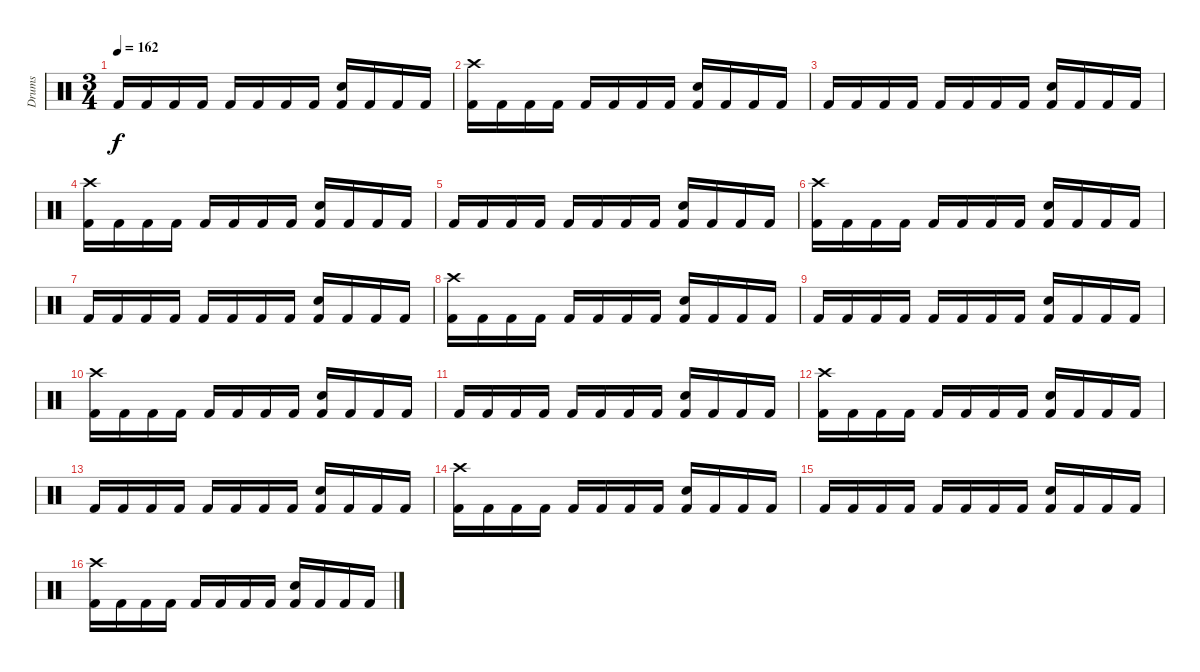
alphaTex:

\track ("Drums" "Drums") {instrument percussion}
\staff {score}
\articulation defaults
\ts (3 4)
\tempo 162
\clef neutral
\ks c "Kick (hit) 2".16{dy f} "Kick (hit) 2".16 "Kick (hit) 2".16 "Kick (hit) 2".16 "Kick (hit) 2".16 "Kick (hit) 2".16 "Kick (hit) 2".16 "Kick (hit) 2".16
("Snare (hit) 2" "Kick (hit) 2").16 "Kick (hit) 2".16 "Kick (hit) 2".16 "Kick (hit) 2".16 |
("Crash high (hit)" "Kick (hit) 2").16 "Kick (hit) 2".16 "Kick (hit) 2".16 "Kick (hit) 2".16 "Kick (hit) 2".16 "Kick (hit) 2".16 "Kick (hit) 2".16 "Kick (hit) 2".16 ("Snare (hit) 2" "Kick (hit) 2").16 "Kick (hit) 2".16 "Kick (hit) 2".16 "Kick (hit) 2".16 |
"Kick (hit) 2".16 "Kick (hit) 2".16 "Kick (hit) 2".16 "Kick (hit) 2".16 "Kick (hit) 2".16 "Kick (hit) 2".16 "Kick (hit) 2".16 "Kick (hit) 2".16 ("Snare (hit) 2" "Kick (hit) 2").16 "Kick (hit) 2".16 "Kick (hit) 2".16 "Kick (hit) 2".16 |
("Crash high (hit)" "Kick (hit) 2").16 "Kick (hit) 2".16 "Kick (hit) 2".16 "Kick (hit) 2".16 "Kick (hit) 2".16 "Kick (hit) 2".16 "Kick (hit) 2".16 "Kick (hit) 2".16 ("Snare (hit) 2" "Kick (hit) 2").16 "Kick (hit) 2".16 "Kick (hit) 2".16 "Kick (hit) 2".16 |
"Kick (hit) 2".16 "Kick (hit) 2".16 "Kick (hit) 2".16 "Kick (hit) 2".16 "Kick (hit) 2".16 "Kick (hit) 2".16 "Kick (hit) 2".16 "Kick (hit) 2".16 ("Snare (hit) 2" "Kick (hit) 2").16 "Kick (hit) 2".16 "Kick (hit) 2".16 "Kick (hit) 2".16 |
("Crash high (hit)" "Kick (hit) 2").16 "Kick (hit) 2".16 "Kick (hit) 2".16 "Kick (hit) 2".16 "Kick (hit) 2".16 "Kick (hit) 2".16 "Kick (hit) 2".16 "Kick (hit) 2".16 ("Snare (hit) 2" "Kick (hit) 2").16 "Kick (hit) 2".16 "Kick (hit) 2".16 "Kick (hit) 2".16 |
"Kick (hit) 2".16 "Kick (hit) 2".16 "Kick (hit) 2".16 "Kick (hit) 2".16 "Kick (hit) 2".16 "Kick (hit) 2".16 "Kick (hit) 2".16 "Kick (hit) 2".16 ("Snare (hit) 2" "Kick (hit) 2").16 "Kick (hit) 2".16 "Kick (hit) 2".16 "Kick (hit) 2".16 |
("Crash high (hit)" "Kick (hit) 2").16 "Kick (hit) 2".16 "Kick (hit) 2".16 "Kick (hit) 2".16 "Kick (hit) 2".16 "Kick (hit) 2".16 "Kick (hit) 2".16 "Kick (hit) 2".16 ("Snare (hit) 2" "Kick (hit) 2").16 "Kick (hit) 2".16 "Kick (hit) 2".16 "Kick (hit) 2".16 |
"Kick (hit) 2".16 "Kick (hit) 2".16 "Kick (hit) 2".16 "Kick (hit) 2".16 "Kick (hit) 2".16 "Kick (hit) 2".16 "Kick (hit) 2".16 "Kick (hit) 2".16 ("Snare (hit) 2" "Kick (hit) 2").16 "Kick (hit) 2".16 "Kick (hit) 2".16 "Kick (hit) 2".16 |
("Crash high (hit)" "Kick (hit) 2").16 "Kick (hit) 2".16 "Kick (hit) 2".16 "Kick (hit) 2".16 "Kick (hit) 2".16 "Kick (hit) 2".16 "Kick (hit) 2".16 "Kick (hit) 2".16 ("Snare (hit) 2" "Kick (hit) 2").16 "Kick (hit) 2".16 "Kick (hit) 2".16 "Kick (hit) 2".16 |
"Kick (hit) 2".16 "Kick (hit) 2".16 "Kick (hit) 2".16 "Kick (hit) 2".16 "Kick (hit) 2".16 "Kick (hit) 2".16 "Kick (hit) 2".16 "Kick (hit) 2".16 ("Snare (hit) 2" "Kick (hit) 2").16 "Kick (hit) 2".16 "Kick (hit) 2".16 "Kick (hit) 2".16 |
("Crash high (hit)" "Kick (hit) 2").16 "Kick (hit) 2".16 "Kick (hit) 2".16 "Kick (hit) 2".16 "Kick (hit) 2".16 "Kick (hit) 2".16 "Kick (hit) 2".16 "Kick (hit) 2".16 ("Snare (hit) 2" "Kick (hit) 2").16 "Kick (hit) 2".16 "Kick (hit) 2".16 "Kick (hit) 2".16 |
"Kick (hit) 2".16 "Kick (hit) 2".16 "Kick (hit) 2".16 "Kick (hit) 2".16 "Kick (hit) 2".16 "Kick (hit) 2".16 "Kick (hit) 2".16 "Kick (hit) 2".16 ("Snare (hit) 2" "Kick (hit) 2").16 "Kick (hit) 2".16 "Kick (hit) 2".16 "Kick (hit) 2".16 |
("Crash high (hit)" "Kick (hit) 2").16 "Kick (hit) 2".16 "Kick (hit) 2".16 "Kick (hit) 2".16 "Kick (hit) 2".16 "Kick (hit) 2".16 "Kick (hit) 2".16 "Kick (hit) 2".16 ("Snare (hit) 2" "Kick (hit) 2").16 "Kick (hit) 2".16 "Kick (hit) 2".16 "Kick (hit) 2".16 |
"Kick (hit) 2".16 "Kick (hit) 2".16 "Kick (hit) 2".16 "Kick (hit) 2".16 "Kick (hit) 2".16 "Kick (hit) 2".16 "Kick (hit) 2".16 "Kick (hit) 2".16 ("Snare (hit) 2" "Kick (hit) 2").16 "Kick (hit) 2".16 "Kick (hit) 2".16 "Kick (hit) 2".16 |
("Crash high (hit)" "Kick (hit) 2").16 "Kick (hit) 2".16 "Kick (hit) 2".16 "Kick (hit) 2".16 "Kick (hit) 2".16 "Kick (hit) 2".16 "Kick (hit) 2".16 "Kick (hit) 2".16 ("Snare (hit) 2" "Kick (hit) 2").16 "Kick (hit) 2".16 "Kick (hit) 2".16 "Kick (hit) 2".16
